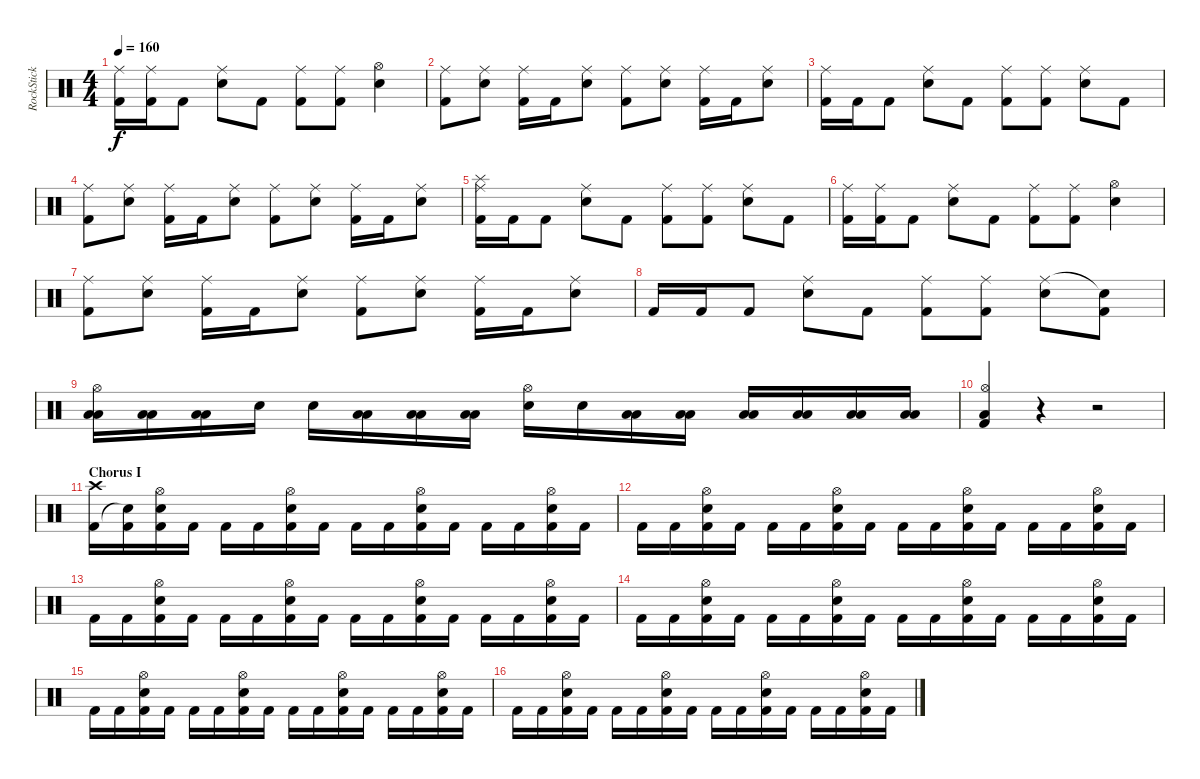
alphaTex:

\track ("RockStick" "RockStick") {instrument percussion}
\staff {score}
\articulation defaults
\ts (4 4)
\tempo 160
\clef neutral
\ks c
("Kick (hit) 2" "Ride (middle)").16{dy f} ("Kick (hit) 2" "Ride (middle)").16 "Kick (hit) 2".8 ("Electric Snare (hit)" "Ride (middle)").8 "Kick (hit) 2".8 ("Kick (hit) 2" "Ride (middle)").8 ("Kick (hit) 2" "Ride (middle)").8 ("Electric Snare (hit)" "Hi-Hat (open)").4 |
("Kick (hit) 2" "Ride (middle)").8 ("Electric Snare (hit)" "Ride (middle)").8 ("Kick (hit) 2" "Ride (middle)").16 "Kick (hit) 2".16 ("Electric Snare (hit)" "Ride (middle)").8 ("Kick (hit) 2" "Ride (middle)").8 ("Electric Snare (hit)" "Ride (middle)").8 ("Kick (hit) 2" "Ride (middle)").16 "Kick (hit) 2".16 ("Electric Snare (hit)" "Ride (middle)").8 |
("Kick (hit) 2" "Ride (middle)").16 "Kick (hit) 2".16 "Kick (hit) 2".8 ("Electric Snare (hit)" "Ride (middle)").8 "Kick (hit) 2".8 ("Kick (hit) 2" "Ride (middle)").8 ("Kick (hit) 2" "Ride (middle)").8 ("Electric Snare (hit)" "Ride (middle)").8 "Kick (hit) 2".8 |
("Kick (hit) 2" "Ride (middle)").8 ("Electric Snare (hit)" "Ride (middle)").8 ("Kick (hit) 2" "Ride (middle)").16 "Kick (hit) 2".16 ("Electric Snare (hit)" "Ride (middle)").8 ("Kick (hit) 2" "Ride (middle)").8 ("Electric Snare (hit)" "Ride (middle)").8 ("Kick (hit) 2" "Ride (middle)").16 "Kick (hit) 2".16 ("Electric Snare (hit)" "Ride (middle)").8 |
("Kick (hit) 2" "Ride (middle)" "Splash (hit)").16 "Kick (hit) 2".16 "Kick (hit) 2".8 ("Electric Snare (hit)" "Ride (middle)").8 "Kick (hit) 2".8 ("Kick (hit) 2" "Ride (middle)").8 ("Kick (hit) 2" "Ride (middle)").8 ("Electric Snare (hit)" "Ride (middle)").8 "Kick (hit) 2".8 |
("Kick (hit) 2" "Ride (middle)").16 ("Kick (hit) 2" "Ride (middle)").16 "Kick (hit) 2".8 ("Electric Snare (hit)" "Ride (middle)").8 "Kick (hit) 2".8 ("Kick (hit) 2" "Ride (middle)").8 ("Kick (hit) 2" "Ride (middle)").8 ("Electric Snare (hit)" "Hi-Hat (open)").4 |
("Kick (hit) 2" "Ride (middle)").8 ("Electric Snare (hit)" "Ride (middle)").8 ("Kick (hit) 2" "Ride (middle)").16 "Kick (hit) 2".16 ("Electric Snare (hit)" "Ride (middle)").8 ("Kick (hit) 2" "Ride (middle)").8 ("Electric Snare (hit)" "Ride (middle)").8 ("Kick (hit) 2" "Ride (middle)").16 "Kick (hit) 2".16 ("Electric Snare (hit)" "Ride (middle)").8 |
"Kick (hit) 2".16 "Kick (hit) 2".16 "Kick (hit) 2".8 ("Electric Snare (hit)" "Ride (middle)").8 "Kick (hit) 2".8 ("Kick (hit) 2" "Ride (middle)").8 ("Kick (hit) 2" "Ride (middle)").8 ("Electric Snare (hit)" "Ride (middle)").8 ("Kick (hit) 2" "Snare (hit)"{t}).8 |
("Low Tom (hit)" "Low Tom (hit)" "Hi-Hat (open)").16 ("Low Tom (hit)" "Low Tom (hit)").16 ("Low Tom (hit)" "Low Tom (hit)").16 "Electric Snare (hit)".16 "Electric Snare (hit)".16 ("Low Tom (hit)" "Low Tom (hit)").16 ("Low Tom (hit)" "Low Tom (hit)").16 ("Low Tom (hit)" "Low Tom (hit)").16 ("Electric Snare (hit)" "Hi-Hat (open)").16 "Electric Snare (hit)".16 ("Low Tom (hit)" "Low Tom (hit)").16 ("Low Tom (hit)" "Low Tom (hit)").16 ("Low Floor Tom (hit)" "Low Floor Tom (hit)").16 ("Low Floor Tom (hit)" "Low Floor Tom (hit)").16 ("Low Floor Tom (hit)" "Low Floor Tom (hit)").16 ("Low Floor Tom (hit)" "Low Floor Tom (hit)").16 |
("Kick (hit) 2" "Low Tom (hit)" "Hi-Hat (open)").4 r.4 r.2 |
\section ("" "Chorus I")
("Crash high (hit)" "Kick (hit) 2").16 ("Kick (hit) 2" "Snare (hit)"{t}).16 ("Electric Snare (hit)" "Kick (hit) 2" "Hi-Hat (open)").16 "Kick (hit) 2".16 "Kick (hit) 2".16 "Kick (hit) 2".16 ("Electric Snare (hit)" "Kick (hit) 2" "Hi-Hat (open)").16 "Kick (hit) 2".16 "Kick (hit) 2".16 "Kick (hit) 2".16 ("Electric Snare (hit)" "Kick (hit) 2" "Hi-Hat (open)").16 "Kick (hit) 2".16 "Kick (hit) 2".16 "Kick (hit) 2".16 ("Electric Snare (hit)" "Kick (hit) 2" "Hi-Hat (open)").16 "Kick (hit) 2".16 |
"Kick (hit) 2".16 "Kick (hit) 2".16 ("Electric Snare (hit)" "Kick (hit) 2" "Hi-Hat (open)").16 "Kick (hit) 2".16 "Kick (hit) 2".16 "Kick (hit) 2".16 ("Electric Snare (hit)" "Kick (hit) 2" "Hi-Hat (open)").16 "Kick (hit) 2".16 "Kick (hit) 2".16 "Kick (hit) 2".16 ("Electric Snare (hit)" "Kick (hit) 2" "Hi-Hat (open)").16 "Kick (hit) 2".16 "Kick (hit) 2".16 "Kick (hit) 2".16 ("Electric Snare (hit)" "Kick (hit) 2" "Hi-Hat (open)").16 "Kick (hit) 2".16 |
"Kick (hit) 2".16 "Kick (hit) 2".16 ("Electric Snare (hit)" "Kick (hit) 2" "Hi-Hat (open)").16 "Kick (hit) 2".16 "Kick (hit) 2".16 "Kick (hit) 2".16 ("Electric Snare (hit)" "Kick (hit) 2" "Hi-Hat (open)").16 "Kick (hit) 2".16 "Kick (hit) 2".16 "Kick (hit) 2".16 ("Electric Snare (hit)" "Kick (hit) 2" "Hi-Hat (open)").16 "Kick (hit) 2".16 "Kick (hit) 2".16 "Kick (hit) 2".16 ("Electric Snare (hit)" "Kick (hit) 2" "Hi-Hat (open)").16 "Kick (hit) 2".16 |
"Kick (hit) 2".16 "Kick (hit) 2".16 ("Electric Snare (hit)" "Kick (hit) 2" "Hi-Hat (open)").16 "Kick (hit) 2".16 "Kick (hit) 2".16 "Kick (hit) 2".16 ("Electric Snare (hit)" "Kick (hit) 2" "Hi-Hat (open)").16 "Kick (hit) 2".16 "Kick (hit) 2".16 "Kick (hit) 2".16 ("Electric Snare (hit)" "Kick (hit) 2" "Hi-Hat (open)").16 "Kick (hit) 2".16 "Kick (hit) 2".16 "Kick (hit) 2".16 ("Electric Snare (hit)" "Kick (hit) 2" "Hi-Hat (open)").16 "Kick (hit) 2".16 |
"Kick (hit) 2".16 "Kick (hit) 2".16 ("Electric Snare (hit)" "Kick (hit) 2" "Hi-Hat (open)").16 "Kick (hit) 2".16 "Kick (hit) 2".16 "Kick (hit) 2".16 ("Electric Snare (hit)" "Kick (hit) 2" "Hi-Hat (open)").16 "Kick (hit) 2".16 "Kick (hit) 2".16 "Kick (hit) 2".16 ("Electric Snare (hit)" "Kick (hit) 2" "Hi-Hat (open)").16 "Kick (hit) 2".16 "Kick (hit) 2".16 "Kick (hit) 2".16 ("Electric Snare (hit)" "Kick (hit) 2" "Hi-Hat (open)").16 "Kick (hit) 2".16 |
"Kick (hit) 2".16 "Kick (hit) 2".16 ("Electric Snare (hit)" "Kick (hit) 2" "Hi-Hat (open)").16 "Kick (hit) 2".16 "Kick (hit) 2".16 "Kick (hit) 2".16 ("Electric Snare (hit)" "Kick (hit) 2" "Hi-Hat (open)").16 "Kick (hit) 2".16 "Kick (hit) 2".16 "Kick (hit) 2".16 ("Electric Snare (hit)" "Kick (hit) 2" "Hi-Hat (open)").16 "Kick (hit) 2".16 "Kick (hit) 2".16 "Kick (hit) 2".16 ("Electric Snare (hit)" "Kick (hit) 2" "Hi-Hat (open)").16 "Kick (hit) 2".16
